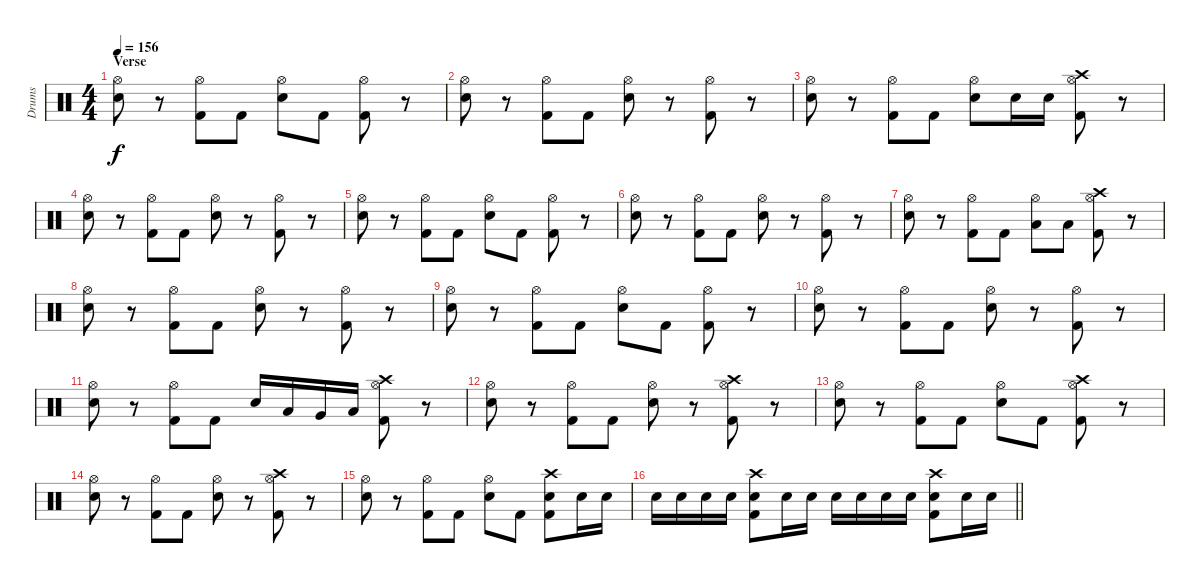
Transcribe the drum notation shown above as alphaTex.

\track ("Drums" "Drums") {instrument percussion}
\staff {score}
\articulation defaults
\ts (4 4)
\section ("" "Verse")
\tempo 156
\clef neutral
\ks c
("Hi-Hat (open)" "Electric Snare (hit)").8{dy f} r.8 ("Hi-Hat (open)" "Kick (hit) 2").8 "Kick (hit) 2".8 ("Hi-Hat (open)" "Electric Snare (hit)").8 "Kick (hit) 2".8 ("Hi-Hat (open)" "Kick (hit) 2").8 r.8 |
("Hi-Hat (open)" "Electric Snare (hit)").8 r.8 ("Hi-Hat (open)" "Kick (hit) 2").8 "Kick (hit) 2".8 ("Hi-Hat (open)" "Electric Snare (hit)").8 r.8 ("Hi-Hat (open)" "Kick (hit) 2").8 r.8 |
("Hi-Hat (open)" "Electric Snare (hit)").8 r.8 ("Hi-Hat (open)" "Kick (hit) 2").8 "Kick (hit) 2".8 ("Hi-Hat (open)" "Electric Snare (hit)").8 "Electric Snare (hit)".16 "Electric Snare (hit)".16 ("Crash high (hit)" "Hi-Hat (open)" "Kick (hit) 2").8 r.8 |
("Hi-Hat (open)" "Electric Snare (hit)").8 r.8 ("Hi-Hat (open)" "Kick (hit) 2").8 "Kick (hit) 2".8 ("Hi-Hat (open)" "Electric Snare (hit)").8 r.8 ("Hi-Hat (open)" "Kick (hit) 2").8 r.8 |
("Hi-Hat (open)" "Electric Snare (hit)").8 r.8 ("Hi-Hat (open)" "Kick (hit) 2").8 "Kick (hit) 2".8 ("Hi-Hat (open)" "Electric Snare (hit)").8 "Kick (hit) 2".8 ("Hi-Hat (open)" "Kick (hit) 2").8 r.8 |
("Hi-Hat (open)" "Electric Snare (hit)").8 r.8 ("Hi-Hat (open)" "Kick (hit) 2").8 "Kick (hit) 2".8 ("Hi-Hat (open)" "Electric Snare (hit)").8 r.8 ("Hi-Hat (open)" "Kick (hit) 2").8 r.8 |
("Hi-Hat (open)" "Electric Snare (hit)").8 r.8 ("Hi-Hat (open)" "Kick (hit) 2").8 "Kick (hit) 2".8 ("Hi-Hat (open)" "Low Tom (hit)").8 "Low Tom (hit)".8 ("Crash high (hit)" "Hi-Hat (open)" "Kick (hit) 2").8 r.8 |
("Hi-Hat (open)" "Electric Snare (hit)").8 r.8 ("Hi-Hat (open)" "Kick (hit) 2").8 "Kick (hit) 2".8 ("Hi-Hat (open)" "Electric Snare (hit)").8 r.8 ("Hi-Hat (open)" "Kick (hit) 2").8 r.8 |
("Hi-Hat (open)" "Electric Snare (hit)").8 r.8 ("Hi-Hat (open)" "Kick (hit) 2").8 "Kick (hit) 2".8 ("Hi-Hat (open)" "Electric Snare (hit)").8 "Kick (hit) 2".8 ("Hi-Hat (open)" "Kick (hit) 2").8 r.8 |
("Hi-Hat (open)" "Electric Snare (hit)").8 r.8 ("Hi-Hat (open)" "Kick (hit) 2").8 "Kick (hit) 2".8 ("Hi-Hat (open)" "Electric Snare (hit)").8 r.8 ("Hi-Hat (open)" "Kick (hit) 2").8 r.8 |
("Hi-Hat (open)" "Electric Snare (hit)").8 r.8 ("Hi-Hat (open)" "Kick (hit) 2").8 "Kick (hit) 2".8 "Electric Snare (hit)".16 "Low Tom (hit)".16 "Very Low Tom (hit)".16 "Low Floor Tom (hit)".16 ("Crash high (hit)" "Hi-Hat (open)" "Kick (hit) 2").8 r.8 |
("Hi-Hat (open)" "Electric Snare (hit)").8 r.8 ("Hi-Hat (open)" "Kick (hit) 2").8 "Kick (hit) 2".8 ("Hi-Hat (open)" "Electric Snare (hit)").8 r.8 ("Crash high (hit)" "Hi-Hat (open)" "Kick (hit) 2").8 r.8 |
("Hi-Hat (open)" "Electric Snare (hit)").8 r.8 ("Hi-Hat (open)" "Kick (hit) 2").8 "Kick (hit) 2".8 ("Hi-Hat (open)" "Electric Snare (hit)").8 "Kick (hit) 2".8 ("Crash high (hit)" "Hi-Hat (open)" "Kick (hit) 2").8 r.8 |
("Hi-Hat (open)" "Electric Snare (hit)").8 r.8 ("Hi-Hat (open)" "Kick (hit) 2").8 "Kick (hit) 2".8 ("Hi-Hat (open)" "Electric Snare (hit)").8 r.8 ("Crash high (hit)" "Hi-Hat (open)" "Kick (hit) 2").8 r.8 |
("Hi-Hat (open)" "Electric Snare (hit)").8 r.8 ("Hi-Hat (open)" "Kick (hit) 2").8 "Kick (hit) 2".8 ("Hi-Hat (open)" "Electric Snare (hit)").8 "Kick (hit) 2".8 ("Crash high (hit)" "Electric Snare (hit)" "Kick (hit) 2").8 "Electric Snare (hit)".16 "Electric Snare (hit)".16 |
\barLineRight lightlight "Electric Snare (hit)".16 "Electric Snare (hit)".16 "Electric Snare (hit)".16 "Electric Snare (hit)".16
("Crash high (hit)" "Electric Snare (hit)" "Kick (hit) 2").8 "Electric Snare (hit)".16 "Electric Snare (hit)".16 "Electric Snare (hit)".16 "Electric Snare (hit)".16 "Electric Snare (hit)".16 "Electric Snare (hit)".16 ("Crash high (hit)" "Electric Snare (hit)" "Kick (hit) 2").8 "Electric Snare (hit)".16 "Electric Snare (hit)".16
